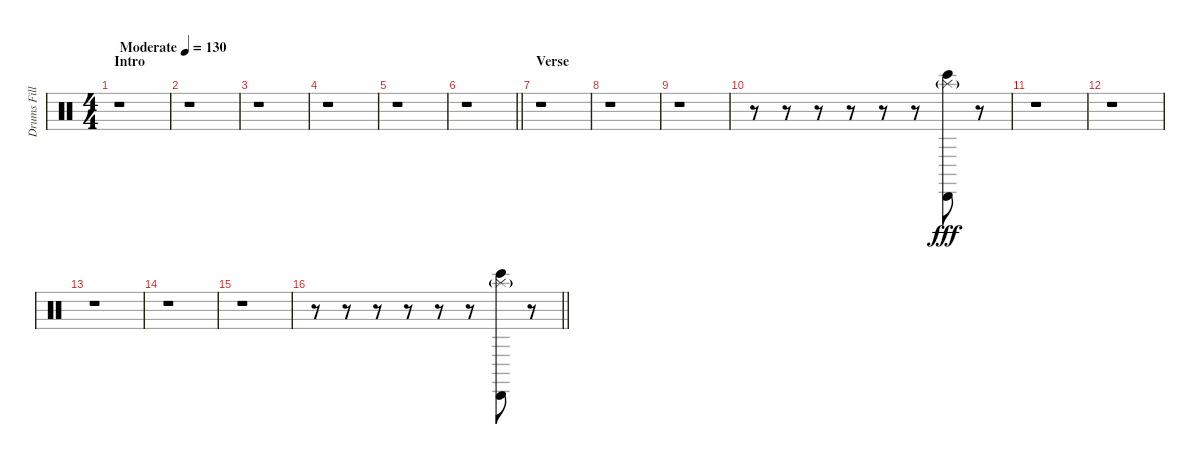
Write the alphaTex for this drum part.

\track ("Drums Fill" "Drums Fill") {instrument percussion}
\staff {score}
\articulation defaults
\ts (4 4)
\section ("" "Intro")
\tempo (130 "Moderate")
\clef neutral
\ks c
r.1{dy fff} |
r.1 |
r.1 |
r.1 |
r.1 |
\barLineRight lightlight
r.1 |
\section ("" "Verse")
r.1 |
r.1 |
r.1 |
r.8 r.8 r.8 r.8 r.8 r.8 ("Splash (hit)"{g} "Cabasa (hit)" "Bongo High (hit)").8 r.8 |
r.1 |
r.1 |
r.1 |
r.1 |
r.1 |
\barLineRight lightlight
r.8 r.8 r.8 r.8 r.8 r.8 ("Splash (hit)"{g} "Cabasa (hit)" "Bongo High (hit)").8 r.8
